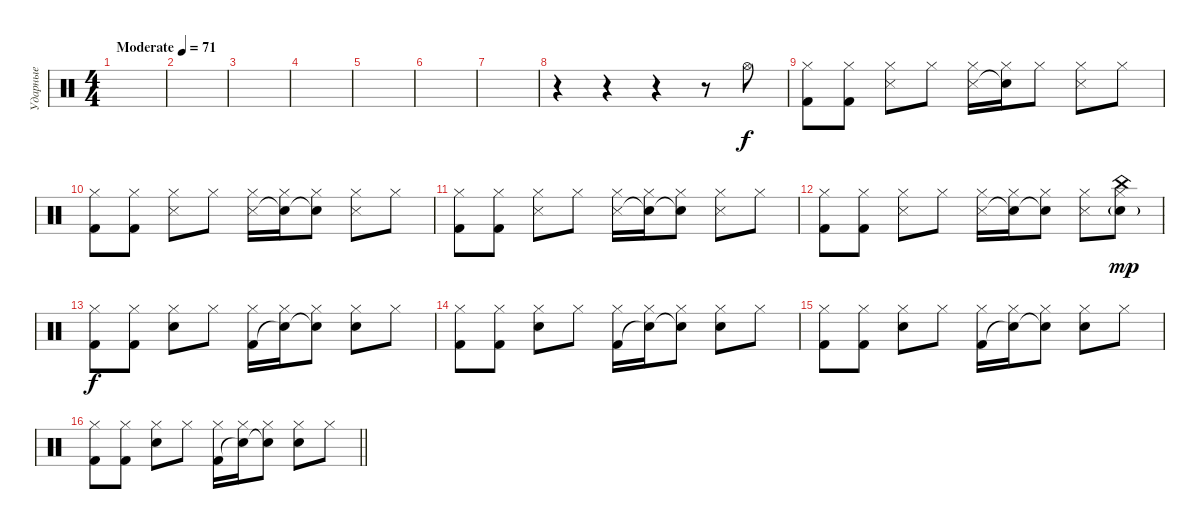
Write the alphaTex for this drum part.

\track ("Ударные" "Ударные") {instrument percussion}
\staff {score}
\articulation defaults
\ts (4 4)
\tempo (71 "Moderate")
\clef neutral
\ks c
|
|
|
|
|
|
|
r.4 r.4 r.4 r.8 "Hi-Hat (open)".8 |
("Kick (hit) 2" "Hi-Hat (closed)").8 ("Kick (hit) 2" "Hi-Hat (closed)").8 ("Snare (side stick) 3" "Hi-Hat (closed)").8 "Hi-Hat (closed)".8 ("Snare (side stick) 3" "Hi-Hat (closed)").16 ("Snare (hit)"{t} "Hi-Hat (closed)").16 "Hi-Hat (closed)".8 ("Snare (side stick) 3" "Hi-Hat (closed)").8 "Hi-Hat (closed)".8 |
("Kick (hit) 2" "Hi-Hat (closed)").8 ("Kick (hit) 2" "Hi-Hat (closed)").8 ("Snare (side stick) 3" "Hi-Hat (closed)").8 "Hi-Hat (closed)".8 ("Snare (side stick) 3" "Hi-Hat (closed)").16 ("Snare (hit)"{t} "Hi-Hat (closed)").16 ("Snare (hit)"{t} "Hi-Hat (closed)").8 ("Snare (side stick) 3" "Hi-Hat (closed)").8 "Hi-Hat (closed)".8 |
("Kick (hit) 2" "Hi-Hat (closed)").8 ("Kick (hit) 2" "Hi-Hat (closed)").8 ("Snare (side stick) 3" "Hi-Hat (closed)").8 "Hi-Hat (closed)".8 ("Snare (side stick) 3" "Hi-Hat (closed)").16 ("Snare (hit)"{t} "Hi-Hat (closed)").16 ("Snare (hit)"{t} "Hi-Hat (closed)").8 ("Snare (side stick) 3" "Hi-Hat (closed)").8 "Hi-Hat (closed)".8 |
("Kick (hit) 2" "Hi-Hat (closed)").8 ("Kick (hit) 2" "Hi-Hat (closed)").8 ("Snare (side stick) 3" "Hi-Hat (closed)").8 "Hi-Hat (closed)".8 ("Snare (side stick) 3" "Hi-Hat (closed)").16 ("Snare (hit)"{t} "Hi-Hat (closed)").16 ("Snare (hit)"{t} "Hi-Hat (closed)").8 ("Snare (side stick) 3" "Hi-Hat (closed)").8 ("China (hit)" "Electric Snare (hit)"{g} "Hi-Hat (closed)").8{dy mp} |
("Kick (hit) 2" "Hi-Hat (closed)").8{dy f} ("Kick (hit) 2" "Hi-Hat (closed)").8 ("Electric Snare (hit)" "Hi-Hat (closed)").8 "Hi-Hat (closed)".8 ("Kick (hit) 2" "Hi-Hat (closed)").16 ("Snare (hit)"{t} "Hi-Hat (closed)").16 ("Snare (hit)"{t} "Hi-Hat (closed)").8 ("Electric Snare (hit)" "Hi-Hat (closed)").8 "Hi-Hat (closed)".8 |
("Kick (hit) 2" "Hi-Hat (closed)").8 ("Kick (hit) 2" "Hi-Hat (closed)").8 ("Electric Snare (hit)" "Hi-Hat (closed)").8 "Hi-Hat (closed)".8 ("Kick (hit) 2" "Hi-Hat (closed)").16 ("Snare (hit)"{t} "Hi-Hat (closed)").16 ("Snare (hit)"{t} "Hi-Hat (closed)").8 ("Electric Snare (hit)" "Hi-Hat (closed)").8 "Hi-Hat (closed)".8 |
("Kick (hit) 2" "Hi-Hat (closed)").8 ("Kick (hit) 2" "Hi-Hat (closed)").8 ("Electric Snare (hit)" "Hi-Hat (closed)").8 "Hi-Hat (closed)".8 ("Kick (hit) 2" "Hi-Hat (closed)").16 ("Snare (hit)"{t} "Hi-Hat (closed)").16 ("Snare (hit)"{t} "Hi-Hat (closed)").8 ("Electric Snare (hit)" "Hi-Hat (closed)").8 "Hi-Hat (closed)".8 |
\barLineRight lightlight
("Kick (hit) 2" "Hi-Hat (closed)").8 ("Kick (hit) 2" "Hi-Hat (closed)").8 ("Electric Snare (hit)" "Hi-Hat (closed)").8 "Hi-Hat (closed)".8 ("Kick (hit) 2" "Hi-Hat (closed)").16 ("Snare (hit)"{t} "Hi-Hat (closed)").16 ("Snare (hit)"{t} "Hi-Hat (closed)").8 ("Electric Snare (hit)" "Hi-Hat (closed)").8 "Hi-Hat (closed)".8
